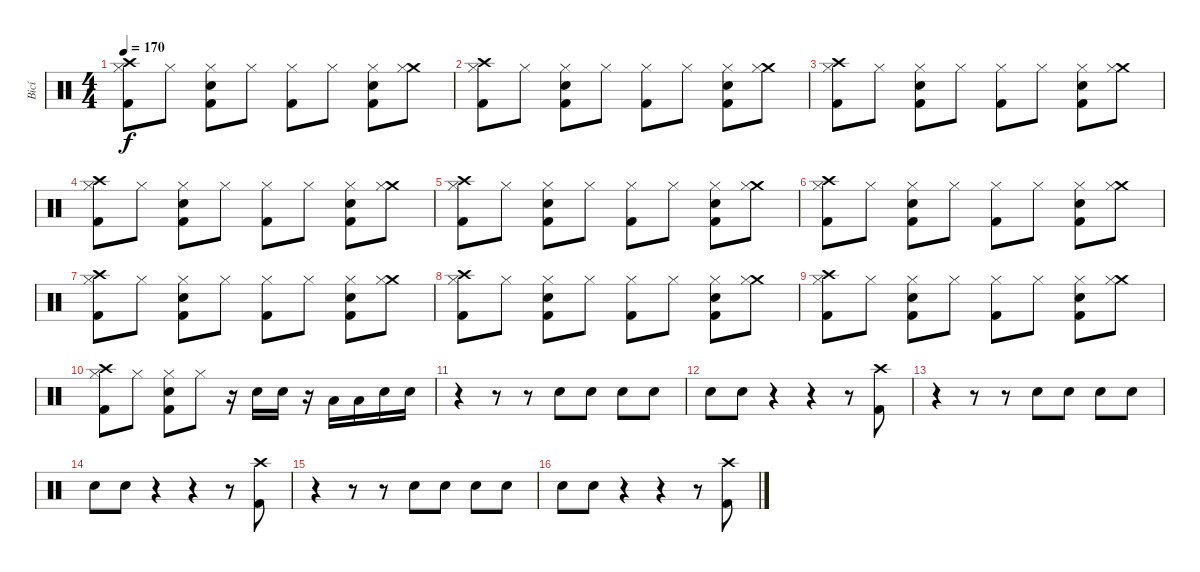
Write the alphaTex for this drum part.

\track ("Bicí" "Bicí") {instrument percussion}
\staff {score}
\articulation defaults
\ts (4 4)
\tempo 170
\clef neutral
\ks c
("Crash high (hit)" "Hi-Hat (closed)" "Kick (hit) 2").8{dy f} "Hi-Hat (closed)".8 ("Hi-Hat (closed)" "Snare (hit) 2" "Kick (hit) 2").8 "Hi-Hat (closed)".8 ("Hi-Hat (closed)" "Kick (hit) 2").8 "Hi-Hat (closed)".8 ("Hi-Hat (closed)" "Snare (hit) 2" "Kick (hit) 2").8 ("Crash medium (hit)" "Hi-Hat (closed)").8 |
("Crash high (hit)" "Hi-Hat (closed)" "Kick (hit) 2").8 "Hi-Hat (closed)".8 ("Hi-Hat (closed)" "Snare (hit) 2" "Kick (hit) 2").8 "Hi-Hat (closed)".8 ("Hi-Hat (closed)" "Kick (hit) 2").8 "Hi-Hat (closed)".8 ("Hi-Hat (closed)" "Snare (hit) 2" "Kick (hit) 2").8 ("Crash medium (hit)" "Hi-Hat (closed)").8 |
("Crash high (hit)" "Hi-Hat (closed)" "Kick (hit) 2").8 "Hi-Hat (closed)".8 ("Hi-Hat (closed)" "Snare (hit) 2" "Kick (hit) 2").8 "Hi-Hat (closed)".8 ("Hi-Hat (closed)" "Kick (hit) 2").8 "Hi-Hat (closed)".8 ("Hi-Hat (closed)" "Snare (hit) 2" "Kick (hit) 2").8 ("Crash medium (hit)" "Hi-Hat (closed)").8 |
("Crash high (hit)" "Hi-Hat (closed)" "Kick (hit) 2").8 "Hi-Hat (closed)".8 ("Hi-Hat (closed)" "Snare (hit) 2" "Kick (hit) 2").8 "Hi-Hat (closed)".8 ("Hi-Hat (closed)" "Kick (hit) 2").8 "Hi-Hat (closed)".8 ("Hi-Hat (closed)" "Snare (hit) 2" "Kick (hit) 2").8 ("Crash medium (hit)" "Hi-Hat (closed)").8 |
("Crash high (hit)" "Hi-Hat (closed)" "Kick (hit) 2").8 "Hi-Hat (closed)".8 ("Hi-Hat (closed)" "Snare (hit) 2" "Kick (hit) 2").8 "Hi-Hat (closed)".8 ("Hi-Hat (closed)" "Kick (hit) 2").8 "Hi-Hat (closed)".8 ("Hi-Hat (closed)" "Snare (hit) 2" "Kick (hit) 2").8 ("Crash medium (hit)" "Hi-Hat (closed)").8 |
("Crash high (hit)" "Hi-Hat (closed)" "Kick (hit) 2").8 "Hi-Hat (closed)".8 ("Hi-Hat (closed)" "Snare (hit) 2" "Kick (hit) 2").8 "Hi-Hat (closed)".8 ("Hi-Hat (closed)" "Kick (hit) 2").8 "Hi-Hat (closed)".8 ("Hi-Hat (closed)" "Snare (hit) 2" "Kick (hit) 2").8 ("Crash medium (hit)" "Hi-Hat (closed)").8 |
("Crash high (hit)" "Hi-Hat (closed)" "Kick (hit) 2").8 "Hi-Hat (closed)".8 ("Hi-Hat (closed)" "Snare (hit) 2" "Kick (hit) 2").8 "Hi-Hat (closed)".8 ("Hi-Hat (closed)" "Kick (hit) 2").8 "Hi-Hat (closed)".8 ("Hi-Hat (closed)" "Snare (hit) 2" "Kick (hit) 2").8 ("Crash medium (hit)" "Hi-Hat (closed)").8 |
("Crash high (hit)" "Hi-Hat (closed)" "Kick (hit) 2").8 "Hi-Hat (closed)".8 ("Hi-Hat (closed)" "Snare (hit) 2" "Kick (hit) 2").8 "Hi-Hat (closed)".8 ("Hi-Hat (closed)" "Kick (hit) 2").8 "Hi-Hat (closed)".8 ("Hi-Hat (closed)" "Snare (hit) 2" "Kick (hit) 2").8 ("Crash medium (hit)" "Hi-Hat (closed)").8 |
("Crash high (hit)" "Hi-Hat (closed)" "Kick (hit) 2").8 "Hi-Hat (closed)".8 ("Hi-Hat (closed)" "Snare (hit) 2" "Kick (hit) 2").8 "Hi-Hat (closed)".8 ("Hi-Hat (closed)" "Kick (hit) 2").8 "Hi-Hat (closed)".8 ("Hi-Hat (closed)" "Snare (hit) 2" "Kick (hit) 2").8 ("Crash medium (hit)" "Hi-Hat (closed)").8 |
("Crash high (hit)" "Hi-Hat (closed)" "Kick (hit) 2").8 "Hi-Hat (closed)".8 ("Hi-Hat (closed)" "Snare (hit) 2" "Kick (hit) 2").8 "Hi-Hat (closed)".8 r.16 "Snare (hit) 2".16 "Snare (hit) 2".16 r.16 "Low Tom (hit)".16 "Low Tom (hit)".16 "Snare (hit) 2".16 "Snare (hit) 2".16 |
r.4 r.8 r.8 "Snare (hit) 2".8 "Snare (hit) 2".8 "Snare (hit) 2".8 "Snare (hit) 2".8 |
"Snare (hit) 2".8 "Snare (hit) 2".8 r.4 r.4 r.8 ("Crash high (hit)" "Kick (hit) 2").8 |
r.4 r.8 r.8 "Snare (hit) 2".8 "Snare (hit) 2".8 "Snare (hit) 2".8 "Snare (hit) 2".8 |
"Snare (hit) 2".8 "Snare (hit) 2".8 r.4 r.4 r.8 ("Crash high (hit)" "Kick (hit) 2").8 |
r.4 r.8 r.8 "Snare (hit) 2".8 "Snare (hit) 2".8 "Snare (hit) 2".8 "Snare (hit) 2".8 |
"Snare (hit) 2".8 "Snare (hit) 2".8 r.4 r.4 r.8 ("Crash high (hit)" "Kick (hit) 2").8
